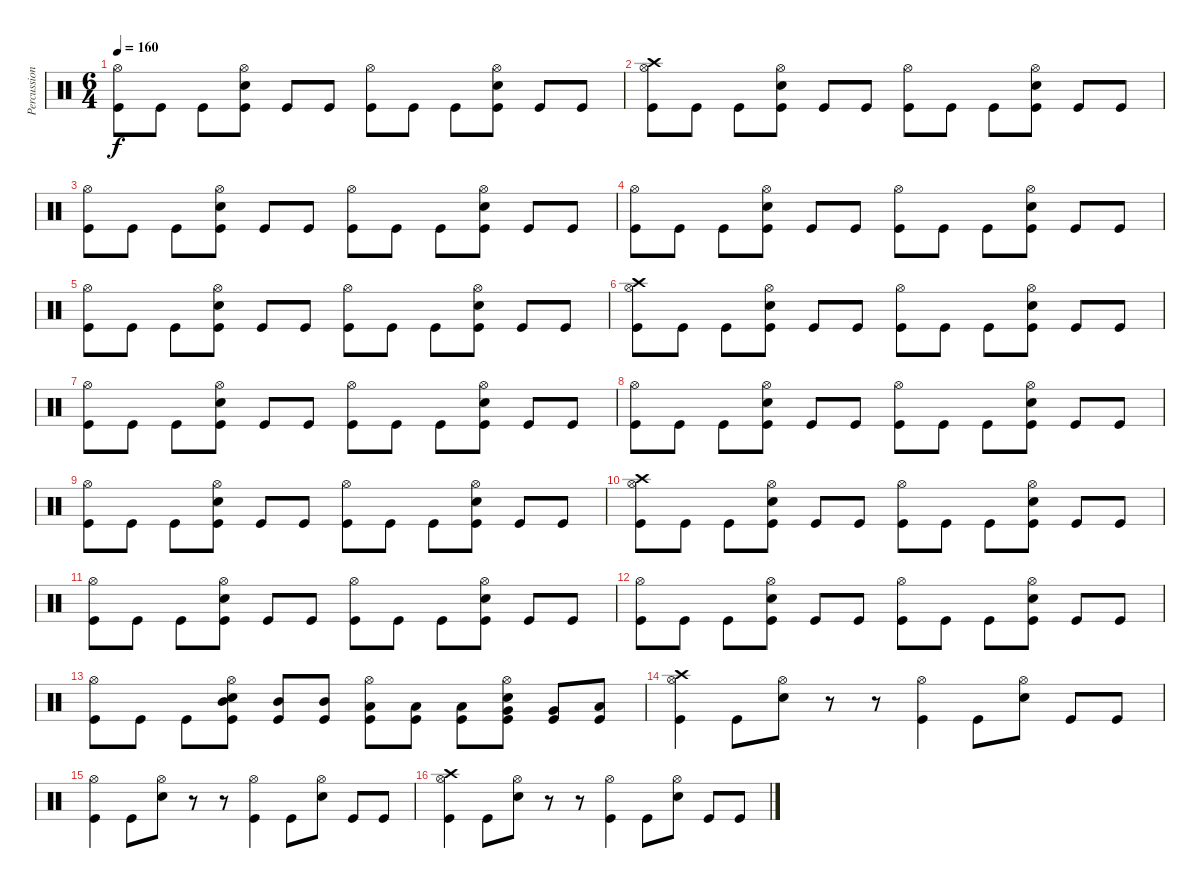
\track ("Percussion" "Percussion") {instrument percussion}
\staff {score}
\articulation defaults
\ts (6 4)
\tempo 160
\clef neutral
\ks c
("Hi-Hat (open)" "Kick (hit)").8{dy f} "Kick (hit)".8 "Kick (hit)".8 ("Electric Snare (hit)" "Hi-Hat (open)" "Kick (hit)").8 "Kick (hit)".8 "Kick (hit)".8 ("Hi-Hat (open)" "Kick (hit)").8 "Kick (hit)".8 "Kick (hit)".8 ("Electric Snare (hit)" "Hi-Hat (open)" "Kick (hit)").8 "Kick (hit)".8 "Kick (hit)".8 |
("Crash high (hit)" "Hi-Hat (open)" "Kick (hit)").8 "Kick (hit)".8 "Kick (hit)".8 ("Electric Snare (hit)" "Hi-Hat (open)" "Kick (hit)").8 "Kick (hit)".8 "Kick (hit)".8 ("Hi-Hat (open)" "Kick (hit)").8 "Kick (hit)".8 "Kick (hit)".8 ("Electric Snare (hit)" "Hi-Hat (open)" "Kick (hit)").8 "Kick (hit)".8 "Kick (hit)".8 |
("Hi-Hat (open)" "Kick (hit)").8 "Kick (hit)".8 "Kick (hit)".8 ("Electric Snare (hit)" "Hi-Hat (open)" "Kick (hit)").8 "Kick (hit)".8 "Kick (hit)".8 ("Hi-Hat (open)" "Kick (hit)").8 "Kick (hit)".8 "Kick (hit)".8 ("Electric Snare (hit)" "Hi-Hat (open)" "Kick (hit)").8 "Kick (hit)".8 "Kick (hit)".8 |
("Hi-Hat (open)" "Kick (hit)").8 "Kick (hit)".8 "Kick (hit)".8 ("Electric Snare (hit)" "Hi-Hat (open)" "Kick (hit)").8 "Kick (hit)".8 "Kick (hit)".8 ("Hi-Hat (open)" "Kick (hit)").8 "Kick (hit)".8 "Kick (hit)".8 ("Electric Snare (hit)" "Hi-Hat (open)" "Kick (hit)").8 "Kick (hit)".8 "Kick (hit)".8 |
("Hi-Hat (open)" "Kick (hit)").8 "Kick (hit)".8 "Kick (hit)".8 ("Electric Snare (hit)" "Hi-Hat (open)" "Kick (hit)").8 "Kick (hit)".8 "Kick (hit)".8 ("Hi-Hat (open)" "Kick (hit)").8 "Kick (hit)".8 "Kick (hit)".8 ("Electric Snare (hit)" "Hi-Hat (open)" "Kick (hit)").8 "Kick (hit)".8 "Kick (hit)".8 |
("Crash high (hit)" "Hi-Hat (open)" "Kick (hit)").8 "Kick (hit)".8 "Kick (hit)".8 ("Electric Snare (hit)" "Hi-Hat (open)" "Kick (hit)").8 "Kick (hit)".8 "Kick (hit)".8 ("Hi-Hat (open)" "Kick (hit)").8 "Kick (hit)".8 "Kick (hit)".8 ("Electric Snare (hit)" "Hi-Hat (open)" "Kick (hit)").8 "Kick (hit)".8 "Kick (hit)".8 |
("Hi-Hat (open)" "Kick (hit)").8 "Kick (hit)".8 "Kick (hit)".8 ("Electric Snare (hit)" "Hi-Hat (open)" "Kick (hit)").8 "Kick (hit)".8 "Kick (hit)".8 ("Hi-Hat (open)" "Kick (hit)").8 "Kick (hit)".8 "Kick (hit)".8 ("Electric Snare (hit)" "Hi-Hat (open)" "Kick (hit)").8 "Kick (hit)".8 "Kick (hit)".8 |
("Hi-Hat (open)" "Kick (hit)").8 "Kick (hit)".8 "Kick (hit)".8 ("Electric Snare (hit)" "Hi-Hat (open)" "Kick (hit)").8 "Kick (hit)".8 "Kick (hit)".8 ("Hi-Hat (open)" "Kick (hit)").8 "Kick (hit)".8 "Kick (hit)".8 ("Electric Snare (hit)" "Hi-Hat (open)" "Kick (hit)").8 "Kick (hit)".8 "Kick (hit)".8 |
("Hi-Hat (open)" "Kick (hit)").8 "Kick (hit)".8 "Kick (hit)".8 ("Electric Snare (hit)" "Hi-Hat (open)" "Kick (hit)").8 "Kick (hit)".8 "Kick (hit)".8 ("Hi-Hat (open)" "Kick (hit)").8 "Kick (hit)".8 "Kick (hit)".8 ("Electric Snare (hit)" "Hi-Hat (open)" "Kick (hit)").8 "Kick (hit)".8 "Kick (hit)".8 |
("Crash high (hit)" "Hi-Hat (open)" "Kick (hit)").8 "Kick (hit)".8 "Kick (hit)".8 ("Electric Snare (hit)" "Hi-Hat (open)" "Kick (hit)").8 "Kick (hit)".8 "Kick (hit)".8 ("Hi-Hat (open)" "Kick (hit)").8 "Kick (hit)".8 "Kick (hit)".8 ("Electric Snare (hit)" "Hi-Hat (open)" "Kick (hit)").8 "Kick (hit)".8 "Kick (hit)".8 |
("Hi-Hat (open)" "Kick (hit)").8 "Kick (hit)".8 "Kick (hit)".8 ("Electric Snare (hit)" "Hi-Hat (open)" "Kick (hit)").8 "Kick (hit)".8 "Kick (hit)".8 ("Hi-Hat (open)" "Kick (hit)").8 "Kick (hit)".8 "Kick (hit)".8 ("Electric Snare (hit)" "Hi-Hat (open)" "Kick (hit)").8 "Kick (hit)".8 "Kick (hit)".8 |
("Hi-Hat (open)" "Kick (hit)").8 "Kick (hit)".8 "Kick (hit)".8 ("Electric Snare (hit)" "Hi-Hat (open)" "Kick (hit)").8 "Kick (hit)".8 "Kick (hit)".8 ("Hi-Hat (open)" "Kick (hit)").8 "Kick (hit)".8 "Kick (hit)".8 ("Electric Snare (hit)" "Hi-Hat (open)" "Kick (hit)").8 "Kick (hit)".8 "Kick (hit)".8 |
("Hi-Hat (open)" "Kick (hit)").8 "Kick (hit)".8 "Kick (hit)".8 ("Mid Tom (hit)" "Electric Snare (hit)" "Hi-Hat (open)" "Kick (hit)").8 ("Mid Tom (hit)" "Kick (hit)").8 ("Mid Tom (hit)" "Kick (hit)").8 ("Low Tom (hit)" "Hi-Hat (open)" "Kick (hit)").8 ("Low Tom (hit)" "Kick (hit)").8 ("Low Tom (hit)" "Kick (hit)").8 ("Very Low Tom (hit)" "Electric Snare (hit)" "Hi-Hat (open)" "Kick (hit)").8 ("Very Low Tom (hit)" "Kick (hit)").8 ("Low Floor Tom (hit)" "Kick (hit)").8 |
("Crash high (hit)" "Hi-Hat (open)" "Kick (hit)").4 "Kick (hit)".8 ("Hi-Hat (open)" "Electric Snare (hit)").8 r.8 r.8 ("Hi-Hat (open)" "Kick (hit)").4 "Kick (hit)".8 ("Hi-Hat (open)" "Electric Snare (hit)").8 "Kick (hit)".8 "Kick (hit)".8 |
("Hi-Hat (open)" "Kick (hit)").4 "Kick (hit)".8 ("Hi-Hat (open)" "Electric Snare (hit)").8 r.8 r.8 ("Hi-Hat (open)" "Kick (hit)").4 "Kick (hit)".8 ("Hi-Hat (open)" "Electric Snare (hit)").8 "Kick (hit)".8 "Kick (hit)".8 |
("Crash high (hit)" "Hi-Hat (open)" "Kick (hit)").4 "Kick (hit)".8 ("Hi-Hat (open)" "Electric Snare (hit)").8 r.8 r.8 ("Hi-Hat (open)" "Kick (hit)").4 "Kick (hit)".8 ("Hi-Hat (open)" "Electric Snare (hit)").8 "Kick (hit)".8 "Kick (hit)".8
